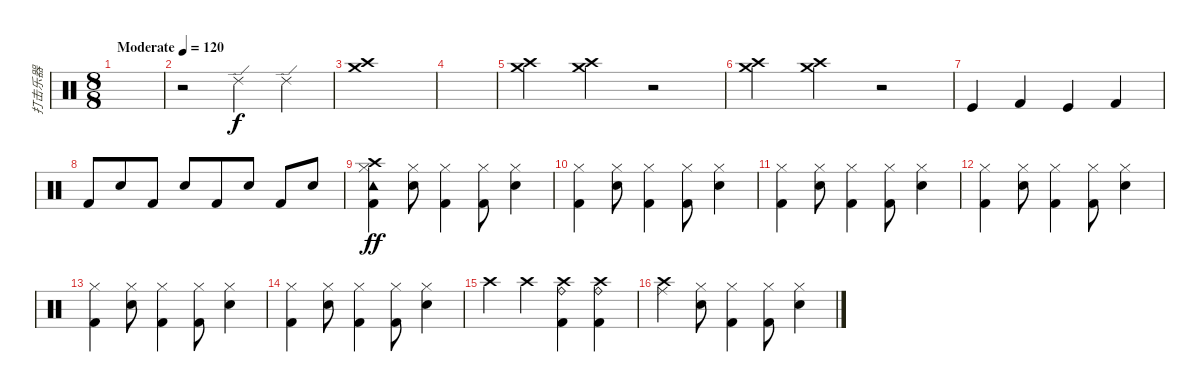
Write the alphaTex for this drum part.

\track ("打击乐器" "打击乐器") {instrument percussion}
\staff {score}
\articulation defaults
\ts (8 8)
\tempo (120 "Moderate")
\clef neutral
\ks c
|
r.2 "Ride (edge) 2".4 "Ride (edge) 2".4 |
("Crash medium (hit)" "Crash high (hit)").1{dy f} |
|
("Crash high (hit)" "Crash medium (hit)").4 ("Crash high (hit)" "Crash medium (hit)").4 r.2 |
("Crash high (hit)" "Crash medium (hit)").4 ("Crash high (hit)" "Crash medium (hit)").4 r.2 |
"Kick (hit)".4 "Kick (hit) 2".4 "Kick (hit)".4 "Kick (hit) 2".4 |
"Kick (hit) 2".8 "Electric Snare (hit)".8 "Kick (hit) 2".8 "Electric Snare (hit)".8 "Kick (hit) 2".8 "Electric Snare (hit)".8 "Kick (hit) 2".8 "Electric Snare (hit)".8 |
("Crash high (hit)" "Kick (hit) 2" "Hi-Hat (closed)" "Tambourine (hit)").4{dy ff} ("Snare (hit) 2" "Hi-Hat (closed)").8 ("Kick (hit) 2" "Hi-Hat (closed)").4 ("Kick (hit) 2" "Hi-Hat (closed)").8 ("Snare (hit) 2" "Hi-Hat (closed)").4 |
("Kick (hit) 2" "Hi-Hat (closed)").4 ("Snare (hit) 2" "Hi-Hat (closed)").8 ("Kick (hit) 2" "Hi-Hat (closed)").4 ("Kick (hit) 2" "Hi-Hat (closed)").8 ("Snare (hit) 2" "Hi-Hat (closed)").4 |
("Kick (hit) 2" "Hi-Hat (closed)").4 ("Snare (hit) 2" "Hi-Hat (closed)").8 ("Kick (hit) 2" "Hi-Hat (closed)").4 ("Kick (hit) 2" "Hi-Hat (closed)").8 ("Snare (hit) 2" "Hi-Hat (closed)").4 |
("Kick (hit) 2" "Hi-Hat (closed)").4 ("Snare (hit) 2" "Hi-Hat (closed)").8 ("Kick (hit) 2" "Hi-Hat (closed)").4 ("Kick (hit) 2" "Hi-Hat (closed)").8 ("Snare (hit) 2" "Hi-Hat (closed)").4 |
("Kick (hit) 2" "Hi-Hat (closed)").4 ("Snare (hit) 2" "Hi-Hat (closed)").8 ("Kick (hit) 2" "Hi-Hat (closed)").4 ("Kick (hit) 2" "Hi-Hat (closed)").8 ("Snare (hit) 2" "Hi-Hat (closed)").4 |
("Kick (hit) 2" "Hi-Hat (closed)").4 ("Snare (hit) 2" "Hi-Hat (closed)").8 ("Kick (hit) 2" "Hi-Hat (closed)").4 ("Kick (hit) 2" "Hi-Hat (closed)").8 ("Snare (hit) 2" "Hi-Hat (closed)").4 |
"Crash high (hit)".4 "Crash high (hit)".4 ("Crash high (hit)" "Kick (hit) 2" "Ride (bell)").4 ("Crash high (hit)" "Kick (hit) 2" "Ride (bell)").4 |
("Crash high (hit)" "Ride (middle)").4 ("Snare (hit) 2" "Hi-Hat (closed)").8 ("Kick (hit) 2" "Hi-Hat (closed)").4 ("Kick (hit) 2" "Hi-Hat (closed)").8 ("Snare (hit) 2" "Hi-Hat (closed)").4
